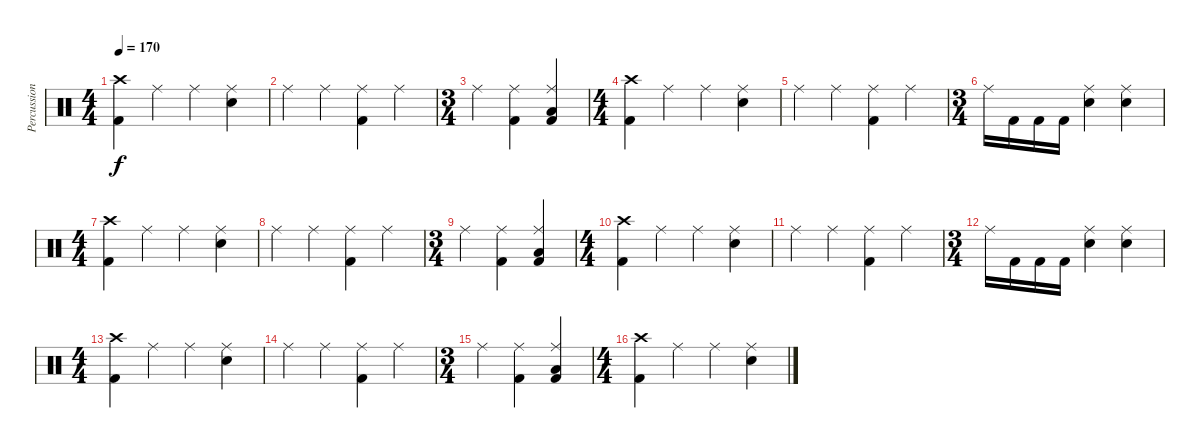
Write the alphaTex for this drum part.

\track ("Percussion" "Percussion") {instrument percussion}
\staff {score}
\articulation defaults
\ts (4 4)
\tempo 170
\clef neutral
\ks c
("Kick (hit) 2" "Crash high (hit)").4{dy f} "Ride (middle)".4 "Ride (middle)".4 ("Snare (hit) 2" "Ride (middle)").4 |
"Ride (middle)".4 "Ride (middle)".4 ("Kick (hit) 2" "Ride (middle)").4 "Ride (middle)".4 |
\ts (3 4)
"Ride (middle)".4 ("Kick (hit) 2" "Ride (middle)").4 ("Kick (hit) 2" "Ride (middle)" "Low Floor Tom (hit)").4 |
\ts (4 4)
("Kick (hit) 2" "Crash high (hit)").4 "Ride (middle)".4 "Ride (middle)".4 ("Snare (hit) 2" "Ride (middle)").4 |
"Ride (middle)".4 "Ride (middle)".4 ("Kick (hit) 2" "Ride (middle)").4 "Ride (middle)".4 |
\ts (3 4)
"Ride (middle)".16 "Kick (hit) 2".16 "Kick (hit) 2".16 "Kick (hit) 2".16 ("Snare (hit) 2" "Ride (middle)").4 ("Snare (hit) 2" "Ride (middle)").4 |
\ts (4 4)
("Kick (hit) 2" "Crash high (hit)").4 "Ride (middle)".4 "Ride (middle)".4 ("Snare (hit) 2" "Ride (middle)").4 |
"Ride (middle)".4 "Ride (middle)".4 ("Kick (hit) 2" "Ride (middle)").4 "Ride (middle)".4 |
\ts (3 4)
"Ride (middle)".4 ("Kick (hit) 2" "Ride (middle)").4 ("Kick (hit) 2" "Ride (middle)" "Low Floor Tom (hit)").4 |
\ts (4 4)
("Kick (hit) 2" "Crash high (hit)").4 "Ride (middle)".4 "Ride (middle)".4 ("Snare (hit) 2" "Ride (middle)").4 |
"Ride (middle)".4 "Ride (middle)".4 ("Kick (hit) 2" "Ride (middle)").4 "Ride (middle)".4 |
\ts (3 4)
"Ride (middle)".16 "Kick (hit) 2".16 "Kick (hit) 2".16 "Kick (hit) 2".16 ("Snare (hit) 2" "Ride (middle)").4 ("Snare (hit) 2" "Ride (middle)").4 |
\ts (4 4)
("Kick (hit) 2" "Crash high (hit)").4 "Ride (middle)".4 "Ride (middle)".4 ("Snare (hit) 2" "Ride (middle)").4 |
"Ride (middle)".4 "Ride (middle)".4 ("Kick (hit) 2" "Ride (middle)").4 "Ride (middle)".4 |
\ts (3 4)
"Ride (middle)".4 ("Kick (hit) 2" "Ride (middle)").4 ("Kick (hit) 2" "Ride (middle)" "Low Floor Tom (hit)").4 |
\ts (4 4)
("Kick (hit) 2" "Crash high (hit)").4 "Ride (middle)".4 "Ride (middle)".4 ("Snare (hit) 2" "Ride (middle)").4
